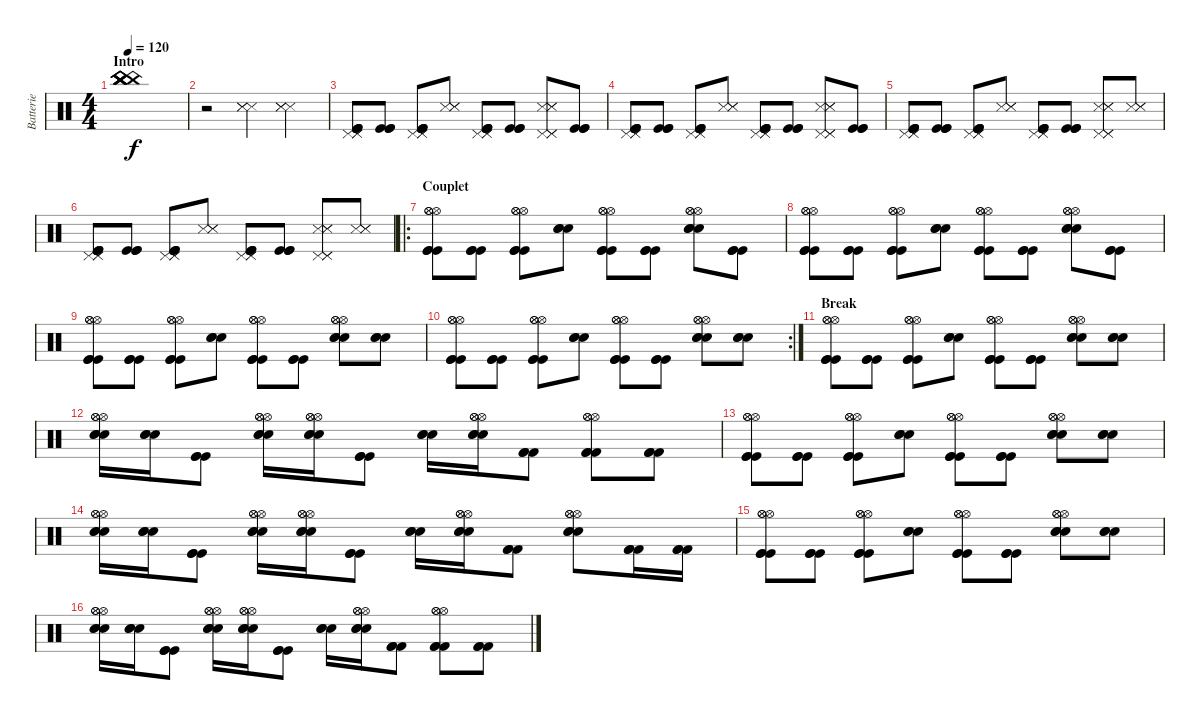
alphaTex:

\track ("Batterie" "Batterie") {instrument percussion}
\staff {score}
\articulation defaults
\ts (4 4)
\section ("" "Intro")
\tempo 120
\clef neutral
\ks c
("China (hit)" "China (hit)" "China (hit)" "China (hit)" "China (hit)" "China (hit)").1{dy f} |
r.2 ("Snare (side stick) 3" "Snare (side stick) 3" "Snare (side stick) 3").4 ("Snare (side stick) 3" "Snare (side stick) 3" "Snare (side stick) 3").4 |
("Pedal Hi-Hat (hit)" "Pedal Hi-Hat (hit)" "Pedal Hi-Hat (hit)" "Kick (hit)" "Kick (hit)" "Kick (hit)").8 ("Kick (hit)" "Kick (hit)" "Kick (hit)").8 ("Pedal Hi-Hat (hit)" "Kick (hit)" "Kick (hit)" "Kick (hit)" "Pedal Hi-Hat (hit)" "Pedal Hi-Hat (hit)").8 ("Snare (side stick) 3" "Snare (side stick) 3" "Snare (side stick) 3").8 ("Pedal Hi-Hat (hit)" "Kick (hit)" "Kick (hit)" "Kick (hit)" "Pedal Hi-Hat (hit)" "Pedal Hi-Hat (hit)").8 ("Kick (hit)" "Kick (hit)" "Kick (hit)").8 ("Pedal Hi-Hat (hit)" "Snare (side stick) 3" "Snare (side stick) 3" "Snare (side stick) 3" "Pedal Hi-Hat (hit)" "Pedal Hi-Hat (hit)").8 ("Kick (hit)" "Kick (hit)" "Kick (hit)").8 |
("Pedal Hi-Hat (hit)" "Pedal Hi-Hat (hit)" "Pedal Hi-Hat (hit)" "Kick (hit)" "Kick (hit)" "Kick (hit)").8 ("Kick (hit)" "Kick (hit)" "Kick (hit)").8 ("Pedal Hi-Hat (hit)" "Kick (hit)" "Kick (hit)" "Kick (hit)" "Pedal Hi-Hat (hit)" "Pedal Hi-Hat (hit)").8 ("Snare (side stick) 3" "Snare (side stick) 3" "Snare (side stick) 3").8 ("Pedal Hi-Hat (hit)" "Kick (hit)" "Kick (hit)" "Kick (hit)" "Pedal Hi-Hat (hit)" "Pedal Hi-Hat (hit)").8 ("Kick (hit)" "Kick (hit)" "Kick (hit)").8 ("Pedal Hi-Hat (hit)" "Snare (side stick) 3" "Snare (side stick) 3" "Snare (side stick) 3" "Pedal Hi-Hat (hit)" "Pedal Hi-Hat (hit)").8 ("Kick (hit)" "Kick (hit)" "Kick (hit)").8 |
("Pedal Hi-Hat (hit)" "Pedal Hi-Hat (hit)" "Pedal Hi-Hat (hit)" "Kick (hit)" "Kick (hit)" "Kick (hit)").8 ("Kick (hit)" "Kick (hit)" "Kick (hit)").8 ("Pedal Hi-Hat (hit)" "Kick (hit)" "Kick (hit)" "Kick (hit)" "Pedal Hi-Hat (hit)" "Pedal Hi-Hat (hit)").8 ("Snare (side stick) 3" "Snare (side stick) 3" "Snare (side stick) 3").8 ("Pedal Hi-Hat (hit)" "Kick (hit)" "Kick (hit)" "Kick (hit)" "Pedal Hi-Hat (hit)" "Pedal Hi-Hat (hit)").8 ("Kick (hit)" "Kick (hit)" "Kick (hit)").8 ("Pedal Hi-Hat (hit)" "Snare (side stick) 3" "Snare (side stick) 3" "Snare (side stick) 3" "Pedal Hi-Hat (hit)" "Pedal Hi-Hat (hit)").8 ("Snare (side stick) 3" "Snare (side stick) 3" "Snare (side stick) 3").8 |
("Pedal Hi-Hat (hit)" "Pedal Hi-Hat (hit)" "Pedal Hi-Hat (hit)" "Kick (hit)" "Kick (hit)" "Kick (hit)").8 ("Kick (hit)" "Kick (hit)" "Kick (hit)").8 ("Pedal Hi-Hat (hit)" "Kick (hit)" "Kick (hit)" "Kick (hit)" "Pedal Hi-Hat (hit)" "Pedal Hi-Hat (hit)").8 ("Snare (side stick) 3" "Snare (side stick) 3" "Snare (side stick) 3").8 ("Pedal Hi-Hat (hit)" "Kick (hit)" "Kick (hit)" "Kick (hit)" "Pedal Hi-Hat (hit)" "Pedal Hi-Hat (hit)").8 ("Kick (hit)" "Kick (hit)" "Kick (hit)").8 ("Pedal Hi-Hat (hit)" "Snare (side stick) 3" "Snare (side stick) 3" "Snare (side stick) 3" "Pedal Hi-Hat (hit)" "Pedal Hi-Hat (hit)").8 ("Snare (side stick) 3" "Snare (side stick) 3" "Snare (side stick) 3").8 |
\ro
\section ("" "Couplet")
("Kick (hit)" "Kick (hit)" "Kick (hit)" "Hi-Hat (open)" "Hi-Hat (open)" "Hi-Hat (open)").8 ("Kick (hit)" "Kick (hit)" "Kick (hit)").8 ("Hi-Hat (open)" "Kick (hit)" "Kick (hit)" "Kick (hit)" "Hi-Hat (open)" "Hi-Hat (open)").8 ("Snare (hit) 2" "Snare (hit) 2" "Snare (hit) 2").8 ("Kick (hit)" "Kick (hit)" "Kick (hit)" "Hi-Hat (open)" "Hi-Hat (open)" "Hi-Hat (open)").8 ("Kick (hit)" "Kick (hit)" "Kick (hit)").8 ("Hi-Hat (open)" "Snare (hit) 2" "Snare (hit) 2" "Snare (hit) 2" "Hi-Hat (open)" "Hi-Hat (open)").8 ("Kick (hit)" "Kick (hit)" "Kick (hit)").8 |
("Kick (hit)" "Kick (hit)" "Kick (hit)" "Hi-Hat (open)" "Hi-Hat (open)" "Hi-Hat (open)").8 ("Kick (hit)" "Kick (hit)" "Kick (hit)").8 ("Hi-Hat (open)" "Kick (hit)" "Kick (hit)" "Kick (hit)" "Hi-Hat (open)" "Hi-Hat (open)").8 ("Snare (hit) 2" "Snare (hit) 2" "Snare (hit) 2").8 ("Kick (hit)" "Kick (hit)" "Kick (hit)" "Hi-Hat (open)" "Hi-Hat (open)" "Hi-Hat (open)").8 ("Kick (hit)" "Kick (hit)" "Kick (hit)").8 ("Hi-Hat (open)" "Snare (hit) 2" "Snare (hit) 2" "Snare (hit) 2" "Hi-Hat (open)" "Hi-Hat (open)").8 ("Kick (hit)" "Kick (hit)" "Kick (hit)").8 |
("Kick (hit)" "Kick (hit)" "Kick (hit)" "Hi-Hat (open)" "Hi-Hat (open)" "Hi-Hat (open)").8 ("Kick (hit)" "Kick (hit)" "Kick (hit)").8 ("Hi-Hat (open)" "Kick (hit)" "Kick (hit)" "Kick (hit)" "Hi-Hat (open)" "Hi-Hat (open)").8 ("Snare (hit) 2" "Snare (hit) 2" "Snare (hit) 2").8 ("Kick (hit)" "Kick (hit)" "Kick (hit)" "Hi-Hat (open)" "Hi-Hat (open)" "Hi-Hat (open)").8 ("Kick (hit)" "Kick (hit)" "Kick (hit)").8 ("Hi-Hat (open)" "Snare (hit) 2" "Snare (hit) 2" "Snare (hit) 2" "Hi-Hat (open)" "Hi-Hat (open)").8 ("Snare (hit) 2" "Snare (hit) 2" "Snare (hit) 2").8 |
\rc 2
("Kick (hit)" "Kick (hit)" "Kick (hit)" "Hi-Hat (open)" "Hi-Hat (open)" "Hi-Hat (open)").8 ("Kick (hit)" "Kick (hit)" "Kick (hit)").8 ("Hi-Hat (open)" "Kick (hit)" "Kick (hit)" "Kick (hit)" "Hi-Hat (open)" "Hi-Hat (open)").8 ("Snare (hit) 2" "Snare (hit) 2" "Snare (hit) 2").8 ("Kick (hit)" "Kick (hit)" "Kick (hit)" "Hi-Hat (open)" "Hi-Hat (open)" "Hi-Hat (open)").8 ("Kick (hit)" "Kick (hit)" "Kick (hit)").8 ("Hi-Hat (open)" "Snare (hit) 2" "Snare (hit) 2" "Snare (hit) 2" "Hi-Hat (open)" "Hi-Hat (open)").8 ("Snare (hit) 2" "Snare (hit) 2" "Snare (hit) 2").8 |
\section ("" "Break")
("Kick (hit)" "Kick (hit)" "Kick (hit)" "Hi-Hat (open)" "Hi-Hat (open)" "Hi-Hat (open)").8 ("Kick (hit)" "Kick (hit)" "Kick (hit)").8 ("Hi-Hat (open)" "Kick (hit)" "Kick (hit)" "Kick (hit)" "Hi-Hat (open)" "Hi-Hat (open)").8 ("Snare (hit) 2" "Snare (hit) 2" "Snare (hit) 2").8 ("Kick (hit)" "Kick (hit)" "Kick (hit)" "Hi-Hat (open)" "Hi-Hat (open)" "Hi-Hat (open)").8 ("Kick (hit)" "Kick (hit)" "Kick (hit)").8 ("Hi-Hat (open)" "Snare (hit) 2" "Snare (hit) 2" "Snare (hit) 2" "Hi-Hat (open)" "Hi-Hat (open)").8 ("Snare (hit) 2" "Snare (hit) 2" "Snare (hit) 2").8 |
("Hi-Hat (open)" "Hi-Hat (open)" "Hi-Hat (open)" "Snare (hit) 2" "Snare (hit) 2" "Snare (hit) 2").16 ("Snare (hit) 2" "Snare (hit) 2" "Snare (hit) 2").16 ("Kick (hit)" "Kick (hit)" "Kick (hit)").8 ("Hi-Hat (open)" "Hi-Hat (open)" "Hi-Hat (open)" "Snare (hit) 2" "Snare (hit) 2" "Snare (hit) 2").16 ("Hi-Hat (open)" "Hi-Hat (open)" "Hi-Hat (open)" "Snare (hit) 2" "Snare (hit) 2" "Snare (hit) 2").16 ("Kick (hit)" "Kick (hit)" "Kick (hit)").8 ("Snare (hit) 2" "Snare (hit) 2" "Snare (hit) 2").16 ("Snare (hit) 2" "Snare (hit) 2" "Snare (hit) 2" "Hi-Hat (open)" "Hi-Hat (open)" "Hi-Hat (open)").16 ("Kick (hit) 2" "Kick (hit) 2" "Kick (hit) 2").8 ("Hi-Hat (open)" "Hi-Hat (open)" "Hi-Hat (open)" "Kick (hit) 2" "Kick (hit) 2" "Kick (hit) 2").8 ("Kick (hit) 2" "Kick (hit) 2" "Kick (hit) 2").8 |
("Kick (hit)" "Kick (hit)" "Kick (hit)" "Hi-Hat (open)" "Hi-Hat (open)" "Hi-Hat (open)").8 ("Kick (hit)" "Kick (hit)" "Kick (hit)").8 ("Hi-Hat (open)" "Kick (hit)" "Kick (hit)" "Kick (hit)" "Hi-Hat (open)" "Hi-Hat (open)").8 ("Snare (hit) 2" "Snare (hit) 2" "Snare (hit) 2").8 ("Kick (hit)" "Kick (hit)" "Kick (hit)" "Hi-Hat (open)" "Hi-Hat (open)" "Hi-Hat (open)").8 ("Kick (hit)" "Kick (hit)" "Kick (hit)").8 ("Hi-Hat (open)" "Snare (hit) 2" "Snare (hit) 2" "Snare (hit) 2" "Hi-Hat (open)" "Hi-Hat (open)").8 ("Snare (hit) 2" "Snare (hit) 2" "Snare (hit) 2").8 |
("Hi-Hat (open)" "Hi-Hat (open)" "Hi-Hat (open)" "Snare (hit) 2" "Snare (hit) 2" "Snare (hit) 2").16 ("Snare (hit) 2" "Snare (hit) 2" "Snare (hit) 2").16 ("Kick (hit)" "Kick (hit)" "Kick (hit)").8 ("Hi-Hat (open)" "Hi-Hat (open)" "Hi-Hat (open)" "Snare (hit) 2" "Snare (hit) 2" "Snare (hit) 2").16 ("Hi-Hat (open)" "Hi-Hat (open)" "Hi-Hat (open)" "Snare (hit) 2" "Snare (hit) 2" "Snare (hit) 2").16 ("Kick (hit)" "Kick (hit)" "Kick (hit)").8 ("Snare (hit) 2" "Snare (hit) 2" "Snare (hit) 2").16 ("Snare (hit) 2" "Snare (hit) 2" "Snare (hit) 2" "Hi-Hat (open)" "Hi-Hat (open)" "Hi-Hat (open)").16 ("Kick (hit) 2" "Kick (hit) 2" "Kick (hit) 2").8 ("Hi-Hat (open)" "Hi-Hat (open)" "Hi-Hat (open)" "Snare (hit) 2" "Snare (hit) 2" "Snare (hit) 2").8 ("Kick (hit) 2" "Kick (hit) 2" "Kick (hit) 2").16 ("Kick (hit) 2" "Kick (hit) 2" "Kick (hit) 2").16 |
("Kick (hit)" "Kick (hit)" "Kick (hit)" "Hi-Hat (open)" "Hi-Hat (open)" "Hi-Hat (open)").8 ("Kick (hit)" "Kick (hit)" "Kick (hit)").8 ("Hi-Hat (open)" "Kick (hit)" "Kick (hit)" "Kick (hit)" "Hi-Hat (open)" "Hi-Hat (open)").8 ("Snare (hit) 2" "Snare (hit) 2" "Snare (hit) 2").8 ("Kick (hit)" "Kick (hit)" "Kick (hit)" "Hi-Hat (open)" "Hi-Hat (open)" "Hi-Hat (open)").8 ("Kick (hit)" "Kick (hit)" "Kick (hit)").8 ("Hi-Hat (open)" "Snare (hit) 2" "Snare (hit) 2" "Snare (hit) 2" "Hi-Hat (open)" "Hi-Hat (open)").8 ("Snare (hit) 2" "Snare (hit) 2" "Snare (hit) 2").8 |
("Hi-Hat (open)" "Hi-Hat (open)" "Hi-Hat (open)" "Snare (hit) 2" "Snare (hit) 2" "Snare (hit) 2").16 ("Snare (hit) 2" "Snare (hit) 2" "Snare (hit) 2").16 ("Kick (hit)" "Kick (hit)" "Kick (hit)").8 ("Hi-Hat (open)" "Hi-Hat (open)" "Hi-Hat (open)" "Snare (hit) 2" "Snare (hit) 2" "Snare (hit) 2").16 ("Hi-Hat (open)" "Hi-Hat (open)" "Hi-Hat (open)" "Snare (hit) 2" "Snare (hit) 2" "Snare (hit) 2").16 ("Kick (hit)" "Kick (hit)" "Kick (hit)").8 ("Snare (hit) 2" "Snare (hit) 2" "Snare (hit) 2").16 ("Snare (hit) 2" "Snare (hit) 2" "Snare (hit) 2" "Hi-Hat (open)" "Hi-Hat (open)" "Hi-Hat (open)").16 ("Kick (hit) 2" "Kick (hit) 2" "Kick (hit) 2").8 ("Hi-Hat (open)" "Hi-Hat (open)" "Hi-Hat (open)" "Kick (hit) 2" "Kick (hit) 2" "Kick (hit) 2").8 ("Kick (hit) 2" "Kick (hit) 2" "Kick (hit) 2").8
